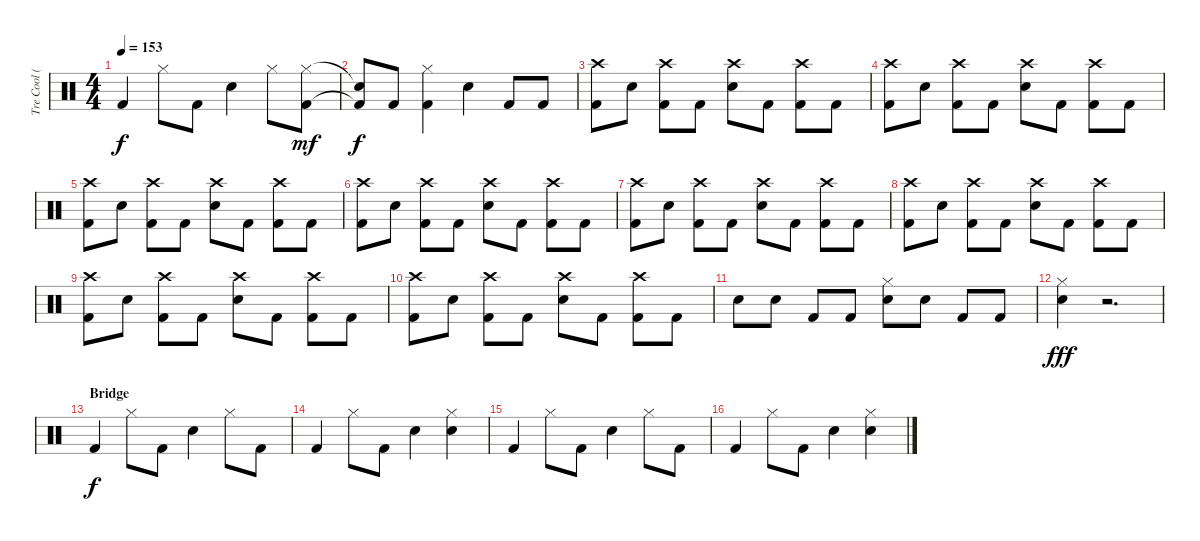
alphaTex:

\track ("Tre Cool (Drums)" "Tre Cool (") {instrument percussion}
\staff {score}
\articulation defaults
\ts (4 4)
\tempo 153
\clef neutral
\ks c "Kick (hit) 2".4{dy f} "Hi-Hat (closed)".8 "Kick (hit) 2".8 "Snare (hit) 2".4 "Hi-Hat (closed)".8
("Kick (hit) 2" "Hi-Hat (closed)").8{dy mf} |
("Kick (hit) 2"{t} "Snare (hit)"{t}).8{dy f} "Kick (hit) 2".8 ("Kick (hit) 2" "Hi-Hat (closed)").4 "Snare (hit) 2".4 "Kick (hit) 2".8 "Kick (hit) 2".8 |
("Kick (hit) 2" "Crash high (hit)").8 "Snare (hit) 2".8 ("Kick (hit) 2" "Crash high (hit)").8 "Kick (hit) 2".8 ("Snare (hit) 2" "Crash high (hit)").8 "Kick (hit) 2".8 ("Kick (hit) 2" "Crash high (hit)").8 "Kick (hit) 2".8 |
("Kick (hit) 2" "Crash high (hit)").8 "Snare (hit) 2".8 ("Kick (hit) 2" "Crash high (hit)").8 "Kick (hit) 2".8 ("Snare (hit) 2" "Crash high (hit)").8 "Kick (hit) 2".8 ("Kick (hit) 2" "Crash high (hit)").8 "Kick (hit) 2".8 |
("Kick (hit) 2" "Crash high (hit)").8 "Snare (hit) 2".8 ("Kick (hit) 2" "Crash high (hit)").8 "Kick (hit) 2".8 ("Snare (hit) 2" "Crash high (hit)").8 "Kick (hit) 2".8 ("Kick (hit) 2" "Crash high (hit)").8 "Kick (hit) 2".8 |
("Kick (hit) 2" "Crash high (hit)").8 "Snare (hit) 2".8 ("Kick (hit) 2" "Crash high (hit)").8 "Kick (hit) 2".8 ("Snare (hit) 2" "Crash high (hit)").8 "Kick (hit) 2".8 ("Kick (hit) 2" "Crash high (hit)").8 "Kick (hit) 2".8 |
("Kick (hit) 2" "Crash high (hit)").8 "Snare (hit) 2".8 ("Kick (hit) 2" "Crash high (hit)").8 "Kick (hit) 2".8 ("Snare (hit) 2" "Crash high (hit)").8 "Kick (hit) 2".8 ("Kick (hit) 2" "Crash high (hit)").8 "Kick (hit) 2".8 |
("Kick (hit) 2" "Crash high (hit)").8 "Snare (hit) 2".8 ("Kick (hit) 2" "Crash high (hit)").8 "Kick (hit) 2".8 ("Snare (hit) 2" "Crash high (hit)").8 "Kick (hit) 2".8 ("Kick (hit) 2" "Crash high (hit)").8 "Kick (hit) 2".8 |
("Kick (hit) 2" "Crash high (hit)").8 "Snare (hit) 2".8 ("Kick (hit) 2" "Crash high (hit)").8 "Kick (hit) 2".8 ("Snare (hit) 2" "Crash high (hit)").8 "Kick (hit) 2".8 ("Kick (hit) 2" "Crash high (hit)").8 "Kick (hit) 2".8 |
("Kick (hit) 2" "Crash high (hit)").8 "Snare (hit) 2".8 ("Kick (hit) 2" "Crash high (hit)").8 "Kick (hit) 2".8 ("Snare (hit) 2" "Crash high (hit)").8 "Kick (hit) 2".8 ("Kick (hit) 2" "Crash high (hit)").8 "Kick (hit) 2".8 |
"Snare (hit) 2".8 "Snare (hit) 2".8 "Kick (hit) 2".8 "Kick (hit) 2".8 ("Snare (hit) 2" "Hi-Hat (closed)").8 "Snare (hit) 2".8 "Kick (hit) 2".8 "Kick (hit) 2".8 |
("Snare (hit) 2" "Hi-Hat (closed)").4{dy fff} r.2{d} |
\section ("" "Bridge")
"Kick (hit) 2".4{dy f} "Hi-Hat (closed)".8 "Kick (hit) 2".8 "Snare (hit) 2".4 "Hi-Hat (closed)".8 "Kick (hit) 2".8 |
"Kick (hit) 2".4 "Hi-Hat (closed)".8 "Kick (hit) 2".8 "Snare (hit) 2".4 ("Snare (hit) 2" "Hi-Hat (closed)").4 |
"Kick (hit) 2".4 "Hi-Hat (closed)".8 "Kick (hit) 2".8 "Snare (hit) 2".4 "Hi-Hat (closed)".8 "Kick (hit) 2".8 |
"Kick (hit) 2".4 "Hi-Hat (closed)".8 "Kick (hit) 2".8 "Snare (hit) 2".4 ("Snare (hit) 2" "Hi-Hat (closed)").4
